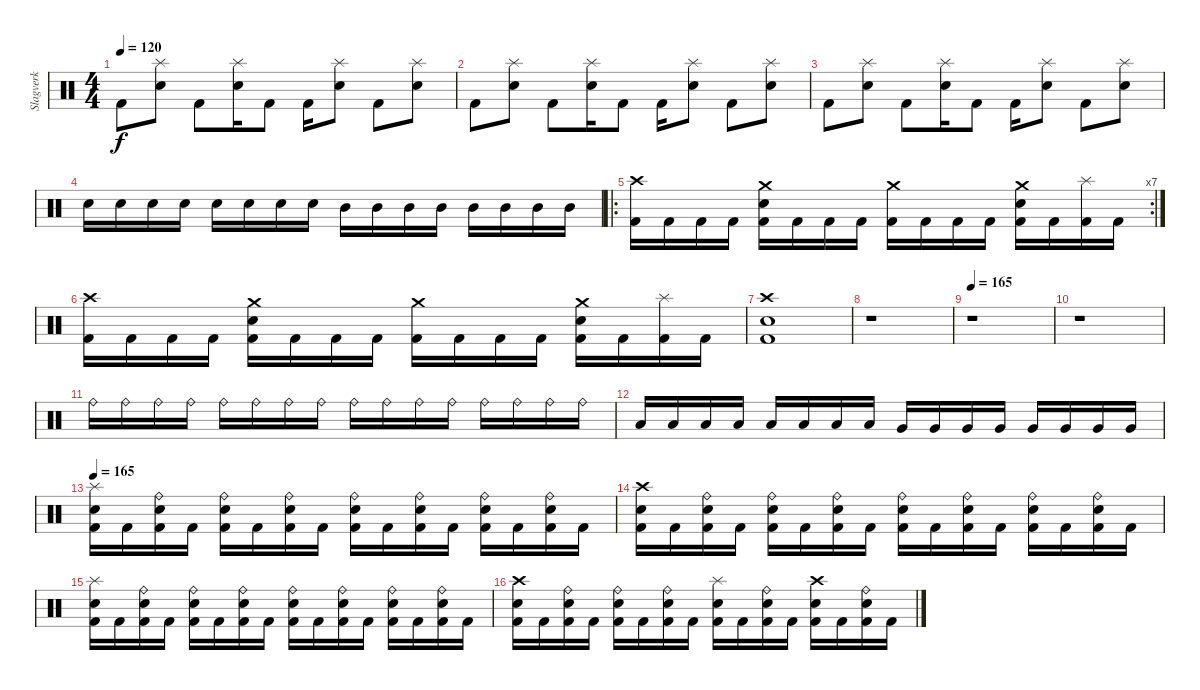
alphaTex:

\track ("Slagverk" "Slagverk") {instrument percussion}
\staff {score}
\articulation defaults
\ts (4 4)
\tempo 120
\clef neutral
\ks c "Kick (hit) 2".8{dy f}
("Splash (hit)" "Electric Snare (hit)").8 "Kick (hit) 2".8 ("Splash (hit)" "Electric Snare (hit)").16 "Kick (hit) 2".8 "Kick (hit) 2".16 ("Splash (hit)" "Electric Snare (hit)").8 "Kick (hit) 2".8 ("Splash (hit)" "Electric Snare (hit)").8 |
"Kick (hit) 2".8 ("Splash (hit)" "Electric Snare (hit)").8 "Kick (hit) 2".8 ("Splash (hit)" "Electric Snare (hit)").16 "Kick (hit) 2".8 "Kick (hit) 2".16 ("Splash (hit)" "Electric Snare (hit)").8 "Kick (hit) 2".8 ("Splash (hit)" "Electric Snare (hit)").8 |
"Kick (hit) 2".8 ("Splash (hit)" "Electric Snare (hit)").8 "Kick (hit) 2".8 ("Splash (hit)" "Electric Snare (hit)").16 "Kick (hit) 2".8 "Kick (hit) 2".16 ("Splash (hit)" "Electric Snare (hit)").8 "Kick (hit) 2".8 ("Splash (hit)" "Electric Snare (hit)").8 |
"Electric Snare (hit)".16 "Electric Snare (hit)".16 "Electric Snare (hit)".16 "Electric Snare (hit)".16 "Electric Snare (hit)".16 "Electric Snare (hit)".16 "Electric Snare (hit)".16 "Electric Snare (hit)".16 "Mid Tom (hit)".16 "Mid Tom (hit)".16 "Mid Tom (hit)".16 "Mid Tom (hit)".16 "Mid Tom (hit)".16 "Mid Tom (hit)".16 "Mid Tom (hit)".16 "Mid Tom (hit)".16 |
\ro
\rc 7
("Crash high (hit)" "Kick (hit) 2").16 "Kick (hit) 2".16 "Kick (hit) 2".16 "Kick (hit) 2".16 ("Crash medium (hit)" "Electric Snare (hit)" "Kick (hit) 2").16 "Kick (hit) 2".16 "Kick (hit) 2".16 "Kick (hit) 2".16 ("Crash medium (hit)" "Kick (hit) 2").16 "Kick (hit) 2".16 "Kick (hit) 2".16 "Kick (hit) 2".16 ("Crash medium (hit)" "Electric Snare (hit)" "Kick (hit) 2").16 "Kick (hit) 2".16 ("Splash (hit)" "Kick (hit) 2").16 "Kick (hit) 2".16 |
("Crash high (hit)" "Kick (hit) 2").16 "Kick (hit) 2".16 "Kick (hit) 2".16 "Kick (hit) 2".16 ("Crash medium (hit)" "Electric Snare (hit)" "Kick (hit) 2").16 "Kick (hit) 2".16 "Kick (hit) 2".16 "Kick (hit) 2".16 ("Crash medium (hit)" "Kick (hit) 2").16 "Kick (hit) 2".16 "Kick (hit) 2".16 "Kick (hit) 2".16 ("Crash medium (hit)" "Electric Snare (hit)" "Kick (hit) 2").16 "Kick (hit) 2".16 ("Splash (hit)" "Kick (hit) 2").16 "Kick (hit) 2".16 |
("Crash high (hit)" "Electric Snare (hit)" "Kick (hit) 2").1 |
r.1 |
\tempo 165
r.1 |
r.1 |
"Ride (bell)".16 "Ride (bell)".16 "Ride (bell)".16 "Ride (bell)".16 "Ride (bell)".16 "Ride (bell)".16 "Ride (bell)".16 "Ride (bell)".16 "Ride (bell)".16 "Ride (bell)".16 "Ride (bell)".16 "Ride (bell)".16 "Ride (bell)".16 "Ride (bell)".16 "Ride (bell)".16 "Ride (bell)".16 |
"Low Tom (hit)".16 "Low Tom (hit)".16 "Low Tom (hit)".16 "Low Tom (hit)".16 "Low Tom (hit)".16 "Low Tom (hit)".16 "Low Tom (hit)".16 "Low Tom (hit)".16 "Very Low Tom (hit)".16 "Very Low Tom (hit)".16 "Very Low Tom (hit)".16 "Very Low Tom (hit)".16 "Very Low Tom (hit)".16 "Very Low Tom (hit)".16 "Very Low Tom (hit)".16 "Very Low Tom (hit)".16 |
\tempo 165
("Splash (hit)" "Electric Snare (hit)" "Kick (hit) 2").16 "Kick (hit) 2".16 ("Ride (bell)" "Electric Snare (hit)" "Kick (hit) 2").16 "Kick (hit) 2".16 ("Ride (bell)" "Electric Snare (hit)" "Kick (hit) 2").16 "Kick (hit) 2".16 ("Ride (bell)" "Electric Snare (hit)" "Kick (hit) 2").16 "Kick (hit) 2".16 ("Ride (bell)" "Electric Snare (hit)" "Kick (hit) 2").16 "Kick (hit) 2".16 ("Ride (bell)" "Electric Snare (hit)" "Kick (hit) 2").16 "Kick (hit) 2".16 ("Ride (bell)" "Electric Snare (hit)" "Kick (hit) 2").16 "Kick (hit) 2".16 ("Ride (bell)" "Electric Snare (hit)" "Kick (hit) 2").16 "Kick (hit) 2".16 |
("Crash high (hit)" "Electric Snare (hit)" "Kick (hit) 2").16 "Kick (hit) 2".16 ("Ride (bell)" "Electric Snare (hit)" "Kick (hit) 2").16 "Kick (hit) 2".16 ("Ride (bell)" "Electric Snare (hit)" "Kick (hit) 2").16 "Kick (hit) 2".16 ("Ride (bell)" "Electric Snare (hit)" "Kick (hit) 2").16 "Kick (hit) 2".16 ("Ride (bell)" "Electric Snare (hit)" "Kick (hit) 2").16 "Kick (hit) 2".16 ("Ride (bell)" "Electric Snare (hit)" "Kick (hit) 2").16 "Kick (hit) 2".16 ("Ride (bell)" "Electric Snare (hit)" "Kick (hit) 2").16 "Kick (hit) 2".16 ("Ride (bell)" "Electric Snare (hit)" "Kick (hit) 2").16 "Kick (hit) 2".16 |
("Splash (hit)" "Electric Snare (hit)" "Kick (hit) 2").16 "Kick (hit) 2".16 ("Ride (bell)" "Electric Snare (hit)" "Kick (hit) 2").16 "Kick (hit) 2".16 ("Ride (bell)" "Electric Snare (hit)" "Kick (hit) 2").16 "Kick (hit) 2".16 ("Ride (bell)" "Electric Snare (hit)" "Kick (hit) 2").16 "Kick (hit) 2".16 ("Ride (bell)" "Electric Snare (hit)" "Kick (hit) 2").16 "Kick (hit) 2".16 ("Ride (bell)" "Electric Snare (hit)" "Kick (hit) 2").16 "Kick (hit) 2".16 ("Ride (bell)" "Electric Snare (hit)" "Kick (hit) 2").16 "Kick (hit) 2".16 ("Ride (bell)" "Electric Snare (hit)" "Kick (hit) 2").16 "Kick (hit) 2".16 |
("Crash high (hit)" "Electric Snare (hit)" "Kick (hit) 2").16 "Kick (hit) 2".16 ("Ride (bell)" "Electric Snare (hit)" "Kick (hit) 2").16 "Kick (hit) 2".16 ("Ride (bell)" "Electric Snare (hit)" "Kick (hit) 2").16 "Kick (hit) 2".16 ("Ride (bell)" "Electric Snare (hit)" "Kick (hit) 2").16 "Kick (hit) 2".16 ("Splash (hit)" "Electric Snare (hit)" "Kick (hit) 2").16 "Kick (hit) 2".16 ("Ride (bell)" "Electric Snare (hit)" "Kick (hit) 2").16 "Kick (hit) 2".16 ("Crash high (hit)" "Electric Snare (hit)" "Kick (hit) 2").16 "Kick (hit) 2".16 ("Ride (bell)" "Electric Snare (hit)" "Kick (hit) 2").16 "Kick (hit) 2".16
